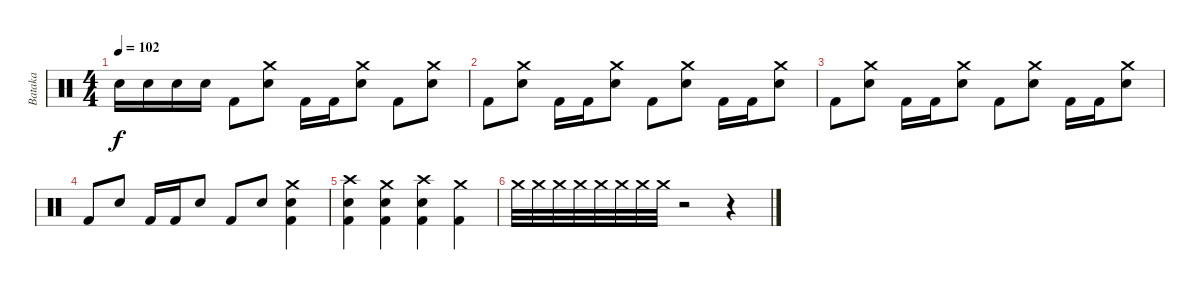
\track ("Bataka" "Bataka") {instrument percussion}
\staff {score}
\articulation defaults
\ts (4 4)
\tempo 102
\clef neutral
\ks c "Snare (hit) 2".16{dy f} "Snare (hit) 2".16 "Snare (hit) 2".16 "Snare (hit) 2".16 "Kick (hit) 2".8
("Crash medium (hit)" "Snare (hit) 2").8 "Kick (hit) 2".16 "Kick (hit) 2".16 ("Crash medium (hit)" "Snare (hit) 2").8 "Kick (hit) 2".8 ("Crash medium (hit)" "Snare (hit) 2").8 |
"Kick (hit) 2".8 ("Crash medium (hit)" "Snare (hit) 2").8 "Kick (hit) 2".16 "Kick (hit) 2".16 ("Crash medium (hit)" "Snare (hit) 2").8 "Kick (hit) 2".8 ("Crash medium (hit)" "Snare (hit) 2").8 "Kick (hit) 2".16 "Kick (hit) 2".16 ("Crash medium (hit)" "Snare (hit) 2").8 |
"Kick (hit) 2".8 ("Crash medium (hit)" "Snare (hit) 2").8 "Kick (hit) 2".16 "Kick (hit) 2".16 ("Crash medium (hit)" "Snare (hit) 2").8 "Kick (hit) 2".8 ("Crash medium (hit)" "Snare (hit) 2").8 "Kick (hit) 2".16 "Kick (hit) 2".16 ("Crash medium (hit)" "Snare (hit) 2").8 |
"Kick (hit) 2".8 "Snare (hit) 2".8 "Kick (hit) 2".16 "Kick (hit) 2".16 "Snare (hit) 2".8 "Kick (hit) 2".8 "Snare (hit) 2".8 ("Kick (hit) 2" "Crash medium (hit)" "Snare (hit) 2").4 |
("Kick (hit) 2" "Crash high (hit)" "Snare (hit) 2").4 ("Kick (hit) 2" "Crash medium (hit)" "Snare (hit) 2").4 ("Kick (hit) 2" "Crash high (hit)" "Snare (hit) 2").4 ("Kick (hit) 2" "Crash medium (hit)").4 |
"Crash medium (hit)".32 "Crash medium (hit)".32 "Crash medium (hit)".32 "Crash medium (hit)".32 "Crash medium (hit)".32 "Crash medium (hit)".32 "Crash medium (hit)".32 "Crash medium (hit)".32 r.2 r.4
